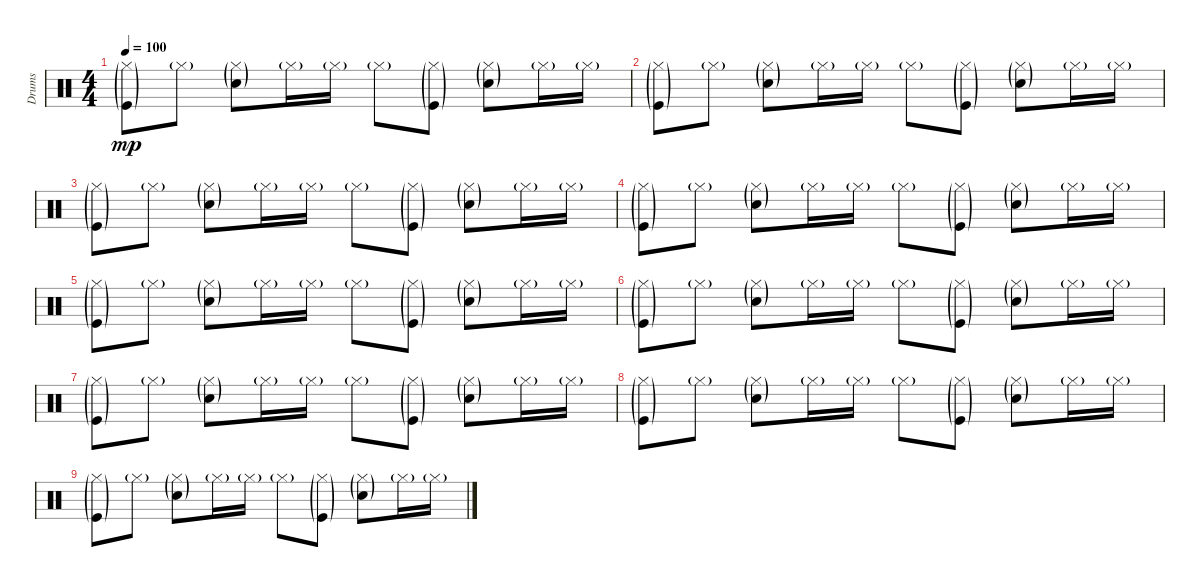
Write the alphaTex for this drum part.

\track ("Drums" "Drums") {instrument percussion}
\staff {score}
\articulation defaults
\ts (4 4)
\tempo 100
\clef neutral
\ks c
("Hi-Hat (closed)"{g} "Kick (hit)"{g}).8{dy mp} "Hi-Hat (closed)"{g}.8 ("Hi-Hat (closed)"{g} "Electric Snare (hit)"{g}).8 "Hi-Hat (closed)"{g}.16 "Hi-Hat (closed)"{g}.16 "Hi-Hat (closed)"{g}.8 ("Hi-Hat (closed)"{g} "Kick (hit)"{g}).8 ("Hi-Hat (closed)"{g} "Electric Snare (hit)"{g}).8 "Hi-Hat (closed)"{g}.16 "Hi-Hat (closed)"{g}.16 |
("Hi-Hat (closed)"{g} "Kick (hit)"{g}).8 "Hi-Hat (closed)"{g}.8 ("Hi-Hat (closed)"{g} "Electric Snare (hit)"{g}).8 "Hi-Hat (closed)"{g}.16 "Hi-Hat (closed)"{g}.16 "Hi-Hat (closed)"{g}.8 ("Hi-Hat (closed)"{g} "Kick (hit)"{g}).8 ("Hi-Hat (closed)"{g} "Electric Snare (hit)"{g}).8 "Hi-Hat (closed)"{g}.16 "Hi-Hat (closed)"{g}.16 |
("Hi-Hat (closed)"{g} "Kick (hit)"{g}).8 "Hi-Hat (closed)"{g}.8 ("Hi-Hat (closed)"{g} "Electric Snare (hit)"{g}).8 "Hi-Hat (closed)"{g}.16 "Hi-Hat (closed)"{g}.16 "Hi-Hat (closed)"{g}.8 ("Hi-Hat (closed)"{g} "Kick (hit)"{g}).8 ("Hi-Hat (closed)"{g} "Electric Snare (hit)"{g}).8 "Hi-Hat (closed)"{g}.16 "Hi-Hat (closed)"{g}.16 |
("Hi-Hat (closed)"{g} "Kick (hit)"{g}).8 "Hi-Hat (closed)"{g}.8 ("Hi-Hat (closed)"{g} "Electric Snare (hit)"{g}).8 "Hi-Hat (closed)"{g}.16 "Hi-Hat (closed)"{g}.16 "Hi-Hat (closed)"{g}.8 ("Hi-Hat (closed)"{g} "Kick (hit)"{g}).8 ("Hi-Hat (closed)"{g} "Electric Snare (hit)"{g}).8 "Hi-Hat (closed)"{g}.16 "Hi-Hat (closed)"{g}.16 |
("Hi-Hat (closed)"{g} "Kick (hit)"{g}).8 "Hi-Hat (closed)"{g}.8 ("Hi-Hat (closed)"{g} "Electric Snare (hit)"{g}).8 "Hi-Hat (closed)"{g}.16 "Hi-Hat (closed)"{g}.16 "Hi-Hat (closed)"{g}.8 ("Hi-Hat (closed)"{g} "Kick (hit)"{g}).8 ("Hi-Hat (closed)"{g} "Electric Snare (hit)"{g}).8 "Hi-Hat (closed)"{g}.16 "Hi-Hat (closed)"{g}.16 |
("Hi-Hat (closed)"{g} "Kick (hit)"{g}).8 "Hi-Hat (closed)"{g}.8 ("Hi-Hat (closed)"{g} "Electric Snare (hit)"{g}).8 "Hi-Hat (closed)"{g}.16 "Hi-Hat (closed)"{g}.16 "Hi-Hat (closed)"{g}.8 ("Hi-Hat (closed)"{g} "Kick (hit)"{g}).8 ("Hi-Hat (closed)"{g} "Electric Snare (hit)"{g}).8 "Hi-Hat (closed)"{g}.16 "Hi-Hat (closed)"{g}.16 |
("Hi-Hat (closed)"{g} "Kick (hit)"{g}).8 "Hi-Hat (closed)"{g}.8 ("Hi-Hat (closed)"{g} "Electric Snare (hit)"{g}).8 "Hi-Hat (closed)"{g}.16 "Hi-Hat (closed)"{g}.16 "Hi-Hat (closed)"{g}.8 ("Hi-Hat (closed)"{g} "Kick (hit)"{g}).8 ("Hi-Hat (closed)"{g} "Electric Snare (hit)"{g}).8 "Hi-Hat (closed)"{g}.16 "Hi-Hat (closed)"{g}.16 |
("Hi-Hat (closed)"{g} "Kick (hit)"{g}).8 "Hi-Hat (closed)"{g}.8 ("Hi-Hat (closed)"{g} "Electric Snare (hit)"{g}).8 "Hi-Hat (closed)"{g}.16 "Hi-Hat (closed)"{g}.16 "Hi-Hat (closed)"{g}.8 ("Hi-Hat (closed)"{g} "Kick (hit)"{g}).8 ("Hi-Hat (closed)"{g} "Electric Snare (hit)"{g}).8 "Hi-Hat (closed)"{g}.16 "Hi-Hat (closed)"{g}.16 |
("Hi-Hat (closed)"{g} "Kick (hit)"{g}).8 "Hi-Hat (closed)"{g}.8 ("Hi-Hat (closed)"{g} "Electric Snare (hit)"{g}).8 "Hi-Hat (closed)"{g}.16 "Hi-Hat (closed)"{g}.16 "Hi-Hat (closed)"{g}.8 ("Hi-Hat (closed)"{g} "Kick (hit)"{g}).8 ("Hi-Hat (closed)"{g} "Electric Snare (hit)"{g}).8 "Hi-Hat (closed)"{g}.16 "Hi-Hat (closed)"{g}.16
